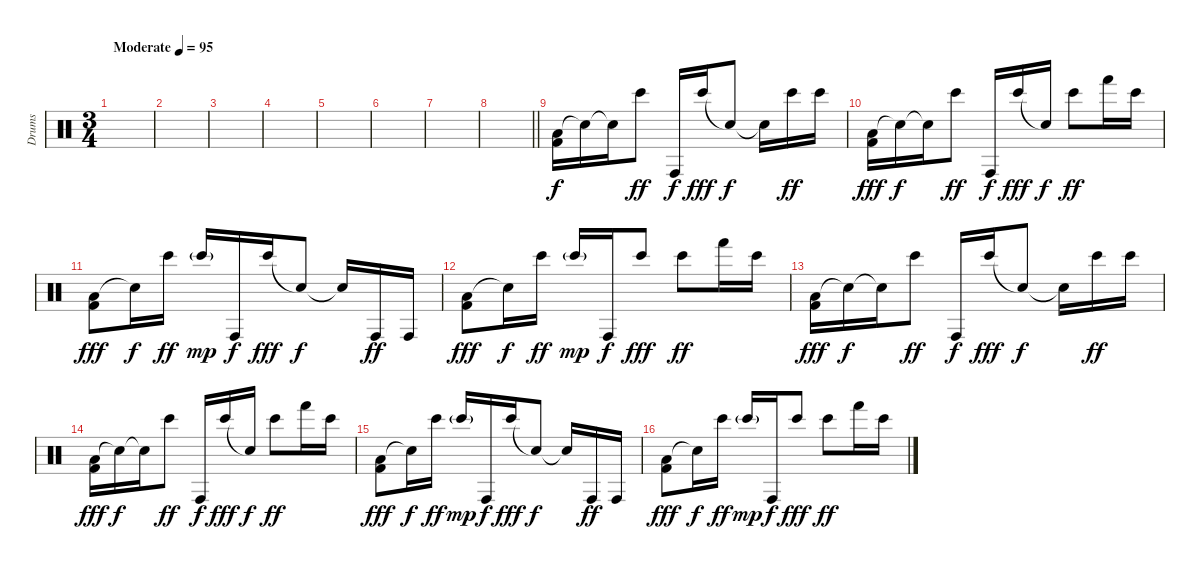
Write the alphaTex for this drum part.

\track ("Drums" "Drums") {instrument percussion}
\staff {score}
\articulation defaults
\ts (3 4)
\tempo (95 "Moderate")
\clef neutral
\ks c
|
|
|
|
|
|
|
\barLineRight lightlight
|
\section ("" "")
("Low Floor Tom (hit)" "Kick (hit) 2").16 "Snare (hit)"{t}.16{dy f} "Snare (hit)"{t}.16 "Bongo High (hit)".8{dy ff} "Conga high (hit)".16{dy f} "Bongo High (hit)".16{dy fff} "Snare (hit)"{t}.8{dy f} "Snare (hit)"{t}.16 "Bongo High (hit)".16{dy ff} "Bongo High (hit)".16 |
("Low Floor Tom (hit)" "Kick (hit) 2").16{dy fff} "Snare (hit)"{t}.16{dy f} "Snare (hit)"{t}.16 "Bongo High (hit)".8{dy ff} "Conga high (hit)".16{dy f} "Bongo High (hit)".16{dy fff} "Snare (hit)"{t}.16{dy f} "Bongo High (hit)".8{dy ff} "Hand (hit)".16 "Bongo High (hit)".16 |
("Low Floor Tom (hit)" "Kick (hit) 2").8{dy fff} "Snare (hit)"{t}.16{dy f} "Bongo High (hit)".16{dy ff} "Bongo High (hit)"{g}.16{dy mp} "Conga high (hit)".16{dy f} "Bongo High (hit)".16{dy fff} "Snare (hit)"{t}.8{dy f} "Snare (hit)"{t}.16 "Conga high (hit)".16{dy ff} "Conga high (hit)".16 |
("Low Floor Tom (hit)" "Kick (hit) 2").8{dy fff} "Snare (hit)"{t}.16{dy f} "Bongo High (hit)".16{dy ff} "Bongo High (hit)"{g}.16{dy mp} "Conga high (hit)".16{dy f} "Bongo High (hit)".8{dy fff} "Bongo High (hit)".8{dy ff} "Hand (hit)".16 "Bongo High (hit)".16 |
("Low Floor Tom (hit)" "Kick (hit) 2").16{dy fff} "Snare (hit)"{t}.16{dy f} "Snare (hit)"{t}.16 "Bongo High (hit)".8{dy ff} "Conga high (hit)".16{dy f} "Bongo High (hit)".16{dy fff} "Snare (hit)"{t}.8{dy f} "Snare (hit)"{t}.16 "Bongo High (hit)".16{dy ff} "Bongo High (hit)".16 |
("Low Floor Tom (hit)" "Kick (hit) 2").16{dy fff} "Snare (hit)"{t}.16{dy f} "Snare (hit)"{t}.16 "Bongo High (hit)".8{dy ff} "Conga high (hit)".16{dy f} "Bongo High (hit)".16{dy fff} "Snare (hit)"{t}.16{dy f} "Bongo High (hit)".8{dy ff} "Hand (hit)".16 "Bongo High (hit)".16 |
("Low Floor Tom (hit)" "Kick (hit) 2").8{dy fff} "Snare (hit)"{t}.16{dy f} "Bongo High (hit)".16{dy ff} "Bongo High (hit)"{g}.16{dy mp} "Conga high (hit)".16{dy f} "Bongo High (hit)".16{dy fff} "Snare (hit)"{t}.8{dy f} "Snare (hit)"{t}.16 "Conga high (hit)".16{dy ff} "Conga high (hit)".16 |
("Low Floor Tom (hit)" "Kick (hit) 2").8{dy fff} "Snare (hit)"{t}.16{dy f} "Bongo High (hit)".16{dy ff} "Bongo High (hit)"{g}.16{dy mp} "Conga high (hit)".16{dy f} "Bongo High (hit)".8{dy fff} "Bongo High (hit)".8{dy ff} "Hand (hit)".16 "Bongo High (hit)".16
